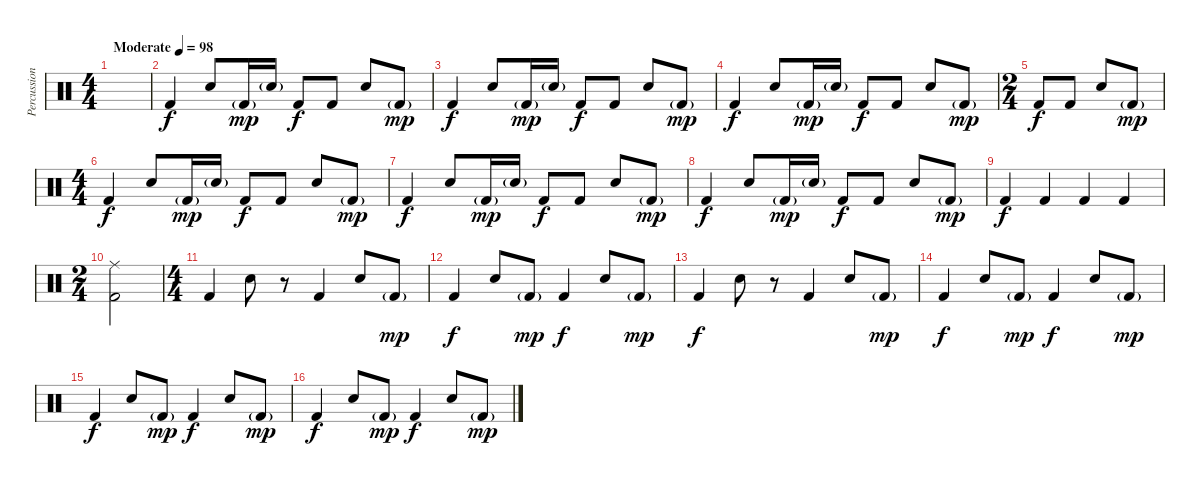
\track ("Percussion" "Percussion") {instrument percussion}
\staff {score}
\articulation defaults
\ts (4 4)
\tempo (98 "Moderate")
\clef neutral
\ks c
|
"Kick (hit) 2".4 "Snare (hit) 2".8 "Kick (hit) 2"{g}.16{dy mp} "Snare (hit) 2"{g}.16 "Kick (hit) 2".8{dy f} "Kick (hit) 2".8 "Snare (hit) 2".8 "Kick (hit) 2"{g}.8{dy mp} |
"Kick (hit) 2".4{dy f} "Snare (hit) 2".8 "Kick (hit) 2"{g}.16{dy mp} "Snare (hit) 2"{g}.16 "Kick (hit) 2".8{dy f} "Kick (hit) 2".8 "Snare (hit) 2".8 "Kick (hit) 2"{g}.8{dy mp} |
"Kick (hit) 2".4{dy f} "Snare (hit) 2".8 "Kick (hit) 2"{g}.16{dy mp} "Snare (hit) 2"{g}.16 "Kick (hit) 2".8{dy f} "Kick (hit) 2".8 "Snare (hit) 2".8 "Kick (hit) 2"{g}.8{dy mp} |
\ts (2 4)
"Kick (hit) 2".8{dy f} "Kick (hit) 2".8 "Snare (hit) 2".8 "Kick (hit) 2"{g}.8{dy mp} |
\ts (4 4)
"Kick (hit) 2".4{dy f} "Snare (hit) 2".8 "Kick (hit) 2"{g}.16{dy mp} "Snare (hit) 2"{g}.16 "Kick (hit) 2".8{dy f} "Kick (hit) 2".8 "Snare (hit) 2".8 "Kick (hit) 2"{g}.8{dy mp} |
"Kick (hit) 2".4{dy f} "Snare (hit) 2".8 "Kick (hit) 2"{g}.16{dy mp} "Snare (hit) 2"{g}.16 "Kick (hit) 2".8{dy f} "Kick (hit) 2".8 "Snare (hit) 2".8 "Kick (hit) 2"{g}.8{dy mp} |
"Kick (hit) 2".4{dy f} "Snare (hit) 2".8 "Kick (hit) 2"{g}.16{dy mp} "Snare (hit) 2"{g}.16 "Kick (hit) 2".8{dy f} "Kick (hit) 2".8 "Snare (hit) 2".8 "Kick (hit) 2"{g}.8{dy mp} |
"Kick (hit) 2".4{dy f} "Kick (hit) 2".4 "Kick (hit) 2".4 "Kick (hit) 2".4 |
\ts (2 4)
("Ride (middle)" "Kick (hit) 2").2 |
\ts (4 4)
"Kick (hit) 2".4 "Snare (hit) 2".8 r.8 "Kick (hit) 2".4 "Snare (hit) 2".8 "Kick (hit) 2"{g}.8{dy mp} |
"Kick (hit) 2".4{dy f} "Snare (hit) 2".8 "Kick (hit) 2"{g}.8{dy mp} "Kick (hit) 2".4{dy f} "Snare (hit) 2".8 "Kick (hit) 2"{g}.8{dy mp} |
"Kick (hit) 2".4{dy f} "Snare (hit) 2".8 r.8 "Kick (hit) 2".4 "Snare (hit) 2".8 "Kick (hit) 2"{g}.8{dy mp} |
"Kick (hit) 2".4{dy f} "Snare (hit) 2".8 "Kick (hit) 2"{g}.8{dy mp} "Kick (hit) 2".4{dy f} "Snare (hit) 2".8 "Kick (hit) 2"{g}.8{dy mp} |
"Kick (hit) 2".4{dy f} "Snare (hit) 2".8 "Kick (hit) 2"{g}.8{dy mp} "Kick (hit) 2".4{dy f} "Snare (hit) 2".8 "Kick (hit) 2"{g}.8{dy mp} |
"Kick (hit) 2".4{dy f} "Snare (hit) 2".8 "Kick (hit) 2"{g}.8{dy mp} "Kick (hit) 2".4{dy f} "Snare (hit) 2".8 "Kick (hit) 2"{g}.8{dy mp}
